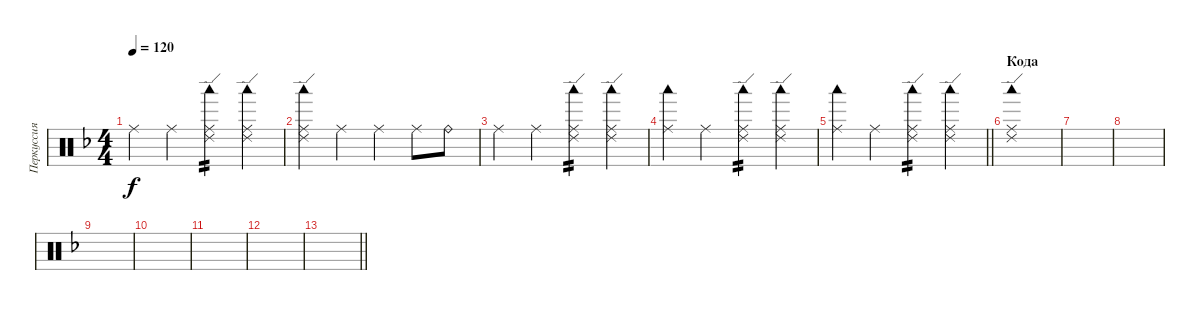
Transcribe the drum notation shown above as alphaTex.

\track ("Перкуссия" "Перкуссия") {instrument percussion}
\staff {score}
\articulation defaults
\ts (4 4)
\tempo 120
\clef neutral
\ks dminor "Ride (middle)".4{dy f} "Ride (middle)".4
("Ride (middle)" "Ride (edge) 2" "Woodblock low (hit)").4{tp 2} ("Ride (middle)" "Ride (edge) 2" "Woodblock low (hit)").4 |
("Ride (middle)" "Ride (edge) 2" "Woodblock low (hit)").4 "Ride (middle)".4 "Ride (middle)".4 "Ride (middle)".8 "Ride (bell)".8 |
"Ride (middle)".4 "Ride (middle)".4 ("Ride (middle)" "Ride (edge) 2" "Woodblock low (hit)").4{tp 2} ("Ride (middle)" "Ride (edge) 2" "Woodblock low (hit)").4 |
("Ride (middle)" "Woodblock low (hit)").4 "Ride (middle)".4 ("Ride (middle)" "Ride (edge) 2" "Woodblock low (hit)").4{tp 2} ("Ride (middle)" "Ride (edge) 2" "Woodblock low (hit)").4 |
\barLineRight lightlight
("Ride (middle)" "Woodblock low (hit)").4 "Ride (middle)".4 ("Ride (middle)" "Ride (edge) 2" "Woodblock low (hit)").4{tp 2} ("Ride (middle)" "Ride (edge) 2" "Woodblock low (hit)").4 |
\section ("" "Кода")
("Ride (middle)" "Ride (edge) 2" "Woodblock low (hit)").1 |
|
|
|
|
|
|
\barLineRight lightlight
